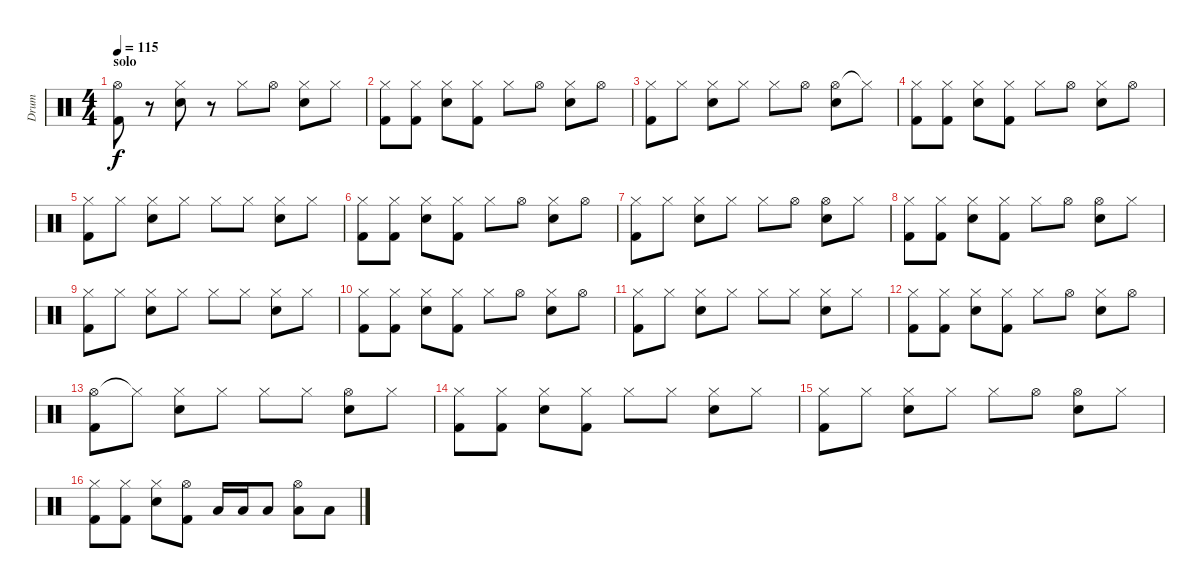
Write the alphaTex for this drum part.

\track ("Drum" "Drum") {instrument percussion}
\staff {score}
\articulation defaults
\ts (4 4)
\section ("" "solo")
\tempo 115
\clef neutral
\ks c
("Hi-Hat (open)" "Kick (hit) 2").8{dy f} r.8 ("Hi-Hat (closed)" "Electric Snare (hit)").8 r.8 "Hi-Hat (closed)".8 "Hi-Hat (open)".8 ("Hi-Hat (closed)" "Electric Snare (hit)").8 "Hi-Hat (closed)".8 |
("Hi-Hat (closed)" "Kick (hit) 2").8 ("Hi-Hat (closed)" "Kick (hit) 2").8 ("Hi-Hat (closed)" "Electric Snare (hit)").8 ("Hi-Hat (closed)" "Kick (hit) 2").8 "Hi-Hat (closed)".8 "Hi-Hat (open)".8 ("Hi-Hat (closed)" "Electric Snare (hit)").8 "Hi-Hat (open)".8 |
("Hi-Hat (closed)" "Kick (hit) 2").8 "Hi-Hat (closed)".8 ("Hi-Hat (closed)" "Electric Snare (hit)").8 "Hi-Hat (closed)".8 "Hi-Hat (closed)".8 "Hi-Hat (open)".8 ("Hi-Hat (open)" "Electric Snare (hit)").8 "Hi-Hat (closed)"{t}.8 |
("Hi-Hat (closed)" "Kick (hit) 2").8 ("Hi-Hat (closed)" "Kick (hit) 2").8 ("Hi-Hat (closed)" "Electric Snare (hit)").8 ("Hi-Hat (closed)" "Kick (hit) 2").8 "Hi-Hat (closed)".8 "Hi-Hat (open)".8 ("Hi-Hat (closed)" "Electric Snare (hit)").8 "Hi-Hat (open)".8 |
("Hi-Hat (closed)" "Kick (hit) 2").8 "Hi-Hat (closed)".8 ("Hi-Hat (closed)" "Electric Snare (hit)").8 "Hi-Hat (closed)".8 "Hi-Hat (closed)".8 "Hi-Hat (closed)".8 ("Hi-Hat (closed)" "Electric Snare (hit)").8 "Hi-Hat (closed)".8 |
("Hi-Hat (closed)" "Kick (hit) 2").8 ("Hi-Hat (closed)" "Kick (hit) 2").8 ("Hi-Hat (closed)" "Electric Snare (hit)").8 ("Hi-Hat (closed)" "Kick (hit) 2").8 "Hi-Hat (closed)".8 "Hi-Hat (open)".8 ("Hi-Hat (closed)" "Electric Snare (hit)").8 "Hi-Hat (open)".8 |
("Hi-Hat (closed)" "Kick (hit) 2").8 "Hi-Hat (closed)".8 ("Hi-Hat (closed)" "Electric Snare (hit)").8 "Hi-Hat (closed)".8 "Hi-Hat (closed)".8 "Hi-Hat (open)".8 ("Hi-Hat (open)" "Electric Snare (hit)").8 "Hi-Hat (closed)".8 |
("Hi-Hat (closed)" "Kick (hit) 2").8 ("Hi-Hat (closed)" "Kick (hit) 2").8 ("Hi-Hat (closed)" "Electric Snare (hit)").8 ("Hi-Hat (closed)" "Kick (hit) 2").8 "Hi-Hat (closed)".8 "Hi-Hat (open)".8 ("Hi-Hat (open)" "Electric Snare (hit)").8 "Hi-Hat (closed)".8 |
("Hi-Hat (closed)" "Kick (hit) 2").8 "Hi-Hat (closed)".8 ("Hi-Hat (closed)" "Electric Snare (hit)").8 "Hi-Hat (closed)".8 "Hi-Hat (closed)".8 "Hi-Hat (closed)".8 ("Hi-Hat (closed)" "Electric Snare (hit)").8 "Hi-Hat (closed)".8 |
("Hi-Hat (closed)" "Kick (hit) 2").8 ("Hi-Hat (closed)" "Kick (hit) 2").8 ("Hi-Hat (closed)" "Electric Snare (hit)").8 ("Hi-Hat (closed)" "Kick (hit) 2").8 "Hi-Hat (closed)".8 "Hi-Hat (open)".8 ("Hi-Hat (closed)" "Electric Snare (hit)").8 "Hi-Hat (open)".8 |
("Hi-Hat (closed)" "Kick (hit) 2").8 "Hi-Hat (closed)".8 ("Hi-Hat (closed)" "Electric Snare (hit)").8 "Hi-Hat (closed)".8 "Hi-Hat (closed)".8 "Hi-Hat (closed)".8 ("Hi-Hat (closed)" "Electric Snare (hit)").8 "Hi-Hat (closed)".8 |
("Hi-Hat (closed)" "Kick (hit) 2").8 ("Hi-Hat (closed)" "Kick (hit) 2").8 ("Hi-Hat (closed)" "Electric Snare (hit)").8 ("Hi-Hat (closed)" "Kick (hit) 2").8 "Hi-Hat (closed)".8 "Hi-Hat (open)".8 ("Hi-Hat (closed)" "Electric Snare (hit)").8 "Hi-Hat (open)".8 |
("Hi-Hat (open)" "Kick (hit) 2").8 "Hi-Hat (closed)"{t}.8 ("Hi-Hat (closed)" "Electric Snare (hit)").8 "Hi-Hat (closed)".8 "Hi-Hat (closed)".8 "Hi-Hat (closed)".8 ("Hi-Hat (open)" "Electric Snare (hit)").8 "Hi-Hat (closed)".8 |
("Hi-Hat (closed)" "Kick (hit) 2").8 ("Hi-Hat (closed)" "Kick (hit) 2").8 ("Hi-Hat (closed)" "Electric Snare (hit)").8 ("Hi-Hat (closed)" "Kick (hit) 2").8 "Hi-Hat (closed)".8 "Hi-Hat (closed)".8 ("Hi-Hat (closed)" "Electric Snare (hit)").8 "Hi-Hat (closed)".8 |
("Hi-Hat (closed)" "Kick (hit) 2").8 "Hi-Hat (closed)".8 ("Hi-Hat (closed)" "Electric Snare (hit)").8 "Hi-Hat (closed)".8 "Hi-Hat (closed)".8 "Hi-Hat (open)".8 ("Hi-Hat (open)" "Electric Snare (hit)").8 "Hi-Hat (closed)".8 |
("Hi-Hat (closed)" "Kick (hit) 2").8 ("Hi-Hat (closed)" "Kick (hit) 2").8 ("Hi-Hat (closed)" "Electric Snare (hit)").8 ("Hi-Hat (open)" "Kick (hit) 2").8 "Low Tom (hit)".16 "Low Tom (hit)".16 "Low Tom (hit)".8 ("Hi-Hat (open)" "Low Tom (hit)").8 "Low Tom (hit)".8
